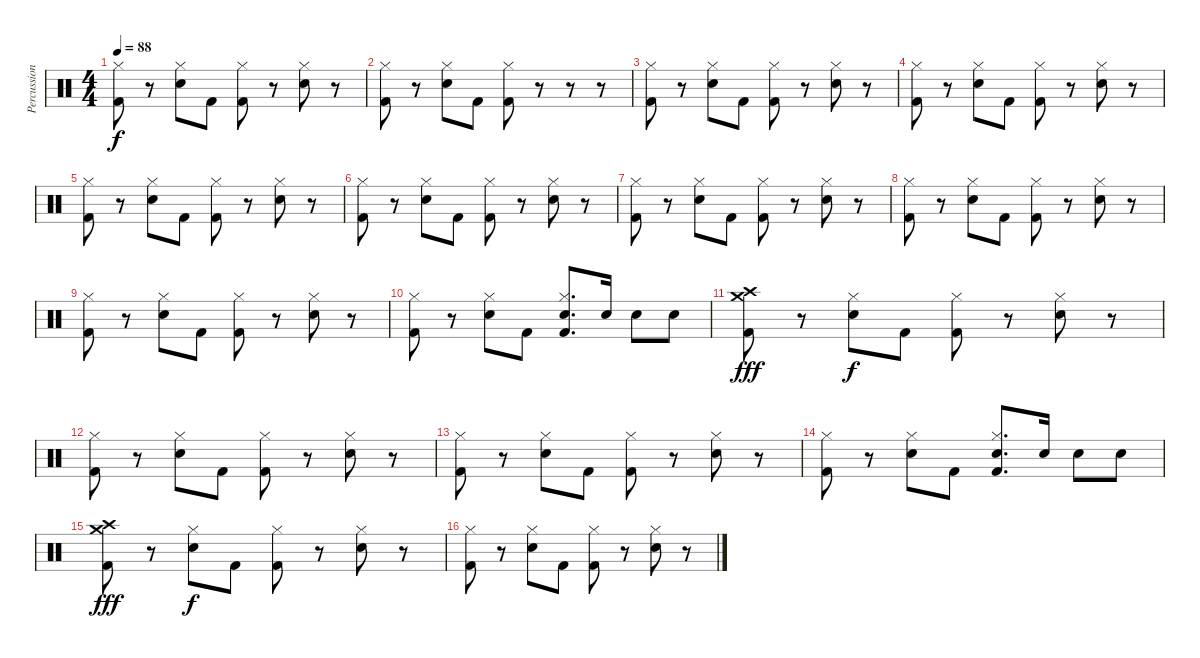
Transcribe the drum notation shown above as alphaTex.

\track ("Percussion" "Percussion") {instrument percussion}
\staff {score}
\articulation defaults
\ts (4 4)
\tempo 88
\clef neutral
\ks c
("Kick (hit) 2" "Hi-Hat (closed)").8{dy f} r.8 ("Snare (hit) 2" "Hi-Hat (closed)").8 "Kick (hit) 2".8 ("Kick (hit) 2" "Hi-Hat (closed)").8 r.8 ("Snare (hit) 2" "Hi-Hat (closed)").8 r.8 |
("Kick (hit) 2" "Hi-Hat (closed)").8 r.8 ("Snare (hit) 2" "Hi-Hat (closed)").8 "Kick (hit) 2".8 ("Kick (hit) 2" "Hi-Hat (closed)").8 r.8 r.8 r.8 |
("Kick (hit) 2" "Hi-Hat (closed)").8 r.8 ("Snare (hit) 2" "Hi-Hat (closed)").8 "Kick (hit) 2".8 ("Kick (hit) 2" "Hi-Hat (closed)").8 r.8 ("Snare (hit) 2" "Hi-Hat (closed)").8 r.8 |
("Kick (hit) 2" "Hi-Hat (closed)").8 r.8 ("Snare (hit) 2" "Hi-Hat (closed)").8 "Kick (hit) 2".8 ("Kick (hit) 2" "Hi-Hat (closed)").8 r.8 ("Snare (hit) 2" "Hi-Hat (closed)").8 r.8 |
("Kick (hit) 2" "Hi-Hat (closed)").8 r.8 ("Snare (hit) 2" "Hi-Hat (closed)").8 "Kick (hit) 2".8 ("Kick (hit) 2" "Hi-Hat (closed)").8 r.8 ("Snare (hit) 2" "Hi-Hat (closed)").8 r.8 |
("Kick (hit) 2" "Hi-Hat (closed)").8 r.8 ("Snare (hit) 2" "Hi-Hat (closed)").8 "Kick (hit) 2".8 ("Kick (hit) 2" "Hi-Hat (closed)").8 r.8 ("Snare (hit) 2" "Hi-Hat (closed)").8 r.8 |
("Kick (hit) 2" "Hi-Hat (closed)").8 r.8 ("Snare (hit) 2" "Hi-Hat (closed)").8 "Kick (hit) 2".8 ("Kick (hit) 2" "Hi-Hat (closed)").8 r.8 ("Snare (hit) 2" "Hi-Hat (closed)").8 r.8 |
("Kick (hit) 2" "Hi-Hat (closed)").8 r.8 ("Snare (hit) 2" "Hi-Hat (closed)").8 "Kick (hit) 2".8 ("Kick (hit) 2" "Hi-Hat (closed)").8 r.8 ("Snare (hit) 2" "Hi-Hat (closed)").8 r.8 |
("Kick (hit) 2" "Hi-Hat (closed)").8 r.8 ("Snare (hit) 2" "Hi-Hat (closed)").8 "Kick (hit) 2".8 ("Kick (hit) 2" "Hi-Hat (closed)").8 r.8 ("Snare (hit) 2" "Hi-Hat (closed)").8 r.8 |
("Kick (hit) 2" "Hi-Hat (closed)").8 r.8 ("Snare (hit) 2" "Hi-Hat (closed)").8 "Kick (hit) 2".8 ("Kick (hit) 2" "Snare (hit) 2" "Hi-Hat (closed)").8{d} "Snare (hit) 2".16 "Snare (hit) 2".8 "Snare (hit) 2".8 |
("Kick (hit) 2" "Crash medium (hit)" "Crash high (hit)").8{dy fff} r.8 ("Snare (hit) 2" "Hi-Hat (closed)").8{dy f} "Kick (hit) 2".8 ("Kick (hit) 2" "Hi-Hat (closed)").8 r.8 ("Snare (hit) 2" "Hi-Hat (closed)").8 r.8 |
("Kick (hit) 2" "Hi-Hat (closed)").8 r.8 ("Snare (hit) 2" "Hi-Hat (closed)").8 "Kick (hit) 2".8 ("Kick (hit) 2" "Hi-Hat (closed)").8 r.8 ("Snare (hit) 2" "Hi-Hat (closed)").8 r.8 |
("Kick (hit) 2" "Hi-Hat (closed)").8 r.8 ("Snare (hit) 2" "Hi-Hat (closed)").8 "Kick (hit) 2".8 ("Kick (hit) 2" "Hi-Hat (closed)").8 r.8 ("Snare (hit) 2" "Hi-Hat (closed)").8 r.8 |
("Kick (hit) 2" "Hi-Hat (closed)").8 r.8 ("Snare (hit) 2" "Hi-Hat (closed)").8 "Kick (hit) 2".8 ("Kick (hit) 2" "Snare (hit) 2" "Hi-Hat (closed)").8{d} "Snare (hit) 2".16 "Snare (hit) 2".8 "Snare (hit) 2".8 |
("Kick (hit) 2" "Crash medium (hit)" "Crash high (hit)").8{dy fff} r.8 ("Snare (hit) 2" "Hi-Hat (closed)").8{dy f} "Kick (hit) 2".8 ("Kick (hit) 2" "Hi-Hat (closed)").8 r.8 ("Snare (hit) 2" "Hi-Hat (closed)").8 r.8 |
("Kick (hit) 2" "Hi-Hat (closed)").8 r.8 ("Snare (hit) 2" "Hi-Hat (closed)").8 "Kick (hit) 2".8 ("Kick (hit) 2" "Hi-Hat (closed)").8 r.8 ("Snare (hit) 2" "Hi-Hat (closed)").8 r.8
